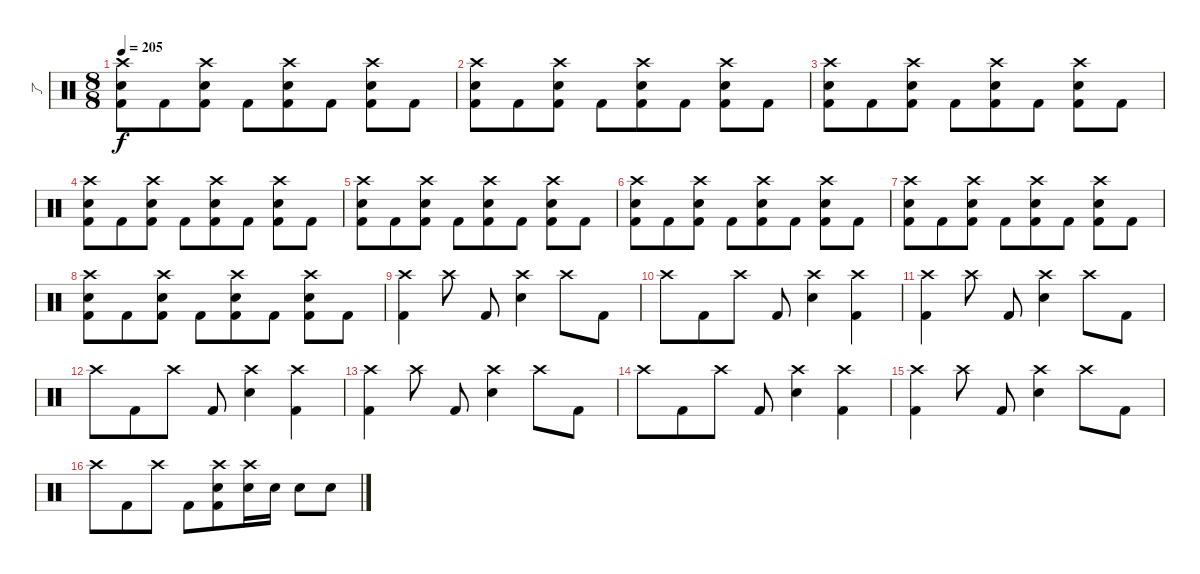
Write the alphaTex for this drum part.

\track ("了" "了") {instrument percussion}
\staff {score}
\articulation defaults
\ts (8 8)
\tempo 205
\clef neutral
\ks c
("Crash high (hit)" "Electric Snare (hit)" "Kick (hit) 2").8{dy f} "Kick (hit) 2".8 ("Crash high (hit)" "Electric Snare (hit)" "Kick (hit) 2").8 "Kick (hit) 2".8 ("Crash high (hit)" "Electric Snare (hit)" "Kick (hit) 2").8 "Kick (hit) 2".8 ("Crash high (hit)" "Electric Snare (hit)" "Kick (hit) 2").8 "Kick (hit) 2".8 |
("Crash high (hit)" "Electric Snare (hit)" "Kick (hit) 2").8 "Kick (hit) 2".8 ("Crash high (hit)" "Electric Snare (hit)" "Kick (hit) 2").8 "Kick (hit) 2".8 ("Crash high (hit)" "Electric Snare (hit)" "Kick (hit) 2").8 "Kick (hit) 2".8 ("Crash high (hit)" "Electric Snare (hit)" "Kick (hit) 2").8 "Kick (hit) 2".8 |
("Crash high (hit)" "Electric Snare (hit)" "Kick (hit) 2").8 "Kick (hit) 2".8 ("Crash high (hit)" "Electric Snare (hit)" "Kick (hit) 2").8 "Kick (hit) 2".8 ("Crash high (hit)" "Electric Snare (hit)" "Kick (hit) 2").8 "Kick (hit) 2".8 ("Crash high (hit)" "Electric Snare (hit)" "Kick (hit) 2").8 "Kick (hit) 2".8 |
("Crash high (hit)" "Electric Snare (hit)" "Kick (hit) 2").8 "Kick (hit) 2".8 ("Crash high (hit)" "Electric Snare (hit)" "Kick (hit) 2").8 "Kick (hit) 2".8 ("Crash high (hit)" "Electric Snare (hit)" "Kick (hit) 2").8 "Kick (hit) 2".8 ("Crash high (hit)" "Electric Snare (hit)" "Kick (hit) 2").8 "Kick (hit) 2".8 |
("Crash high (hit)" "Electric Snare (hit)" "Kick (hit) 2").8 "Kick (hit) 2".8 ("Crash high (hit)" "Electric Snare (hit)" "Kick (hit) 2").8 "Kick (hit) 2".8 ("Crash high (hit)" "Electric Snare (hit)" "Kick (hit) 2").8 "Kick (hit) 2".8 ("Crash high (hit)" "Electric Snare (hit)" "Kick (hit) 2").8 "Kick (hit) 2".8 |
("Crash high (hit)" "Electric Snare (hit)" "Kick (hit) 2").8 "Kick (hit) 2".8 ("Crash high (hit)" "Electric Snare (hit)" "Kick (hit) 2").8 "Kick (hit) 2".8 ("Crash high (hit)" "Electric Snare (hit)" "Kick (hit) 2").8 "Kick (hit) 2".8 ("Crash high (hit)" "Electric Snare (hit)" "Kick (hit) 2").8 "Kick (hit) 2".8 |
("Crash high (hit)" "Electric Snare (hit)" "Kick (hit) 2").8 "Kick (hit) 2".8 ("Crash high (hit)" "Electric Snare (hit)" "Kick (hit) 2").8 "Kick (hit) 2".8 ("Crash high (hit)" "Electric Snare (hit)" "Kick (hit) 2").8 "Kick (hit) 2".8 ("Crash high (hit)" "Electric Snare (hit)" "Kick (hit) 2").8 "Kick (hit) 2".8 |
("Crash high (hit)" "Electric Snare (hit)" "Kick (hit) 2").8 "Kick (hit) 2".8 ("Crash high (hit)" "Electric Snare (hit)" "Kick (hit) 2").8 "Kick (hit) 2".8 ("Crash high (hit)" "Electric Snare (hit)" "Kick (hit) 2").8 "Kick (hit) 2".8 ("Crash high (hit)" "Electric Snare (hit)" "Kick (hit) 2").8 "Kick (hit) 2".8 |
("Kick (hit) 2" "Crash high (hit)").4 "Crash high (hit)".8 "Kick (hit) 2".8 ("Snare (hit) 2" "Crash high (hit)").4 "Crash high (hit)".8 "Kick (hit) 2".8 |
"Crash high (hit)".8 "Kick (hit) 2".8 "Crash high (hit)".8 "Kick (hit) 2".8 ("Snare (hit) 2" "Crash high (hit)").4 ("Kick (hit) 2" "Crash high (hit)").4 |
("Kick (hit) 2" "Crash high (hit)").4 "Crash high (hit)".8 "Kick (hit) 2".8 ("Snare (hit) 2" "Crash high (hit)").4 "Crash high (hit)".8 "Kick (hit) 2".8 |
"Crash high (hit)".8 "Kick (hit) 2".8 "Crash high (hit)".8 "Kick (hit) 2".8 ("Snare (hit) 2" "Crash high (hit)").4 ("Kick (hit) 2" "Crash high (hit)").4 |
("Kick (hit) 2" "Crash high (hit)").4 "Crash high (hit)".8 "Kick (hit) 2".8 ("Snare (hit) 2" "Crash high (hit)").4 "Crash high (hit)".8 "Kick (hit) 2".8 |
"Crash high (hit)".8 "Kick (hit) 2".8 "Crash high (hit)".8 "Kick (hit) 2".8 ("Snare (hit) 2" "Crash high (hit)").4 ("Kick (hit) 2" "Crash high (hit)").4 |
("Kick (hit) 2" "Crash high (hit)").4 "Crash high (hit)".8 "Kick (hit) 2".8 ("Snare (hit) 2" "Crash high (hit)").4 "Crash high (hit)".8 "Kick (hit) 2".8 |
"Crash high (hit)".8 "Kick (hit) 2".8 "Crash high (hit)".8 "Kick (hit) 2".8 ("Snare (hit) 2" "Kick (hit) 2" "Crash high (hit)").8 ("Snare (hit) 2" "Crash high (hit)").16 "Snare (hit) 2".16 "Snare (hit) 2".8 "Snare (hit) 2".8
